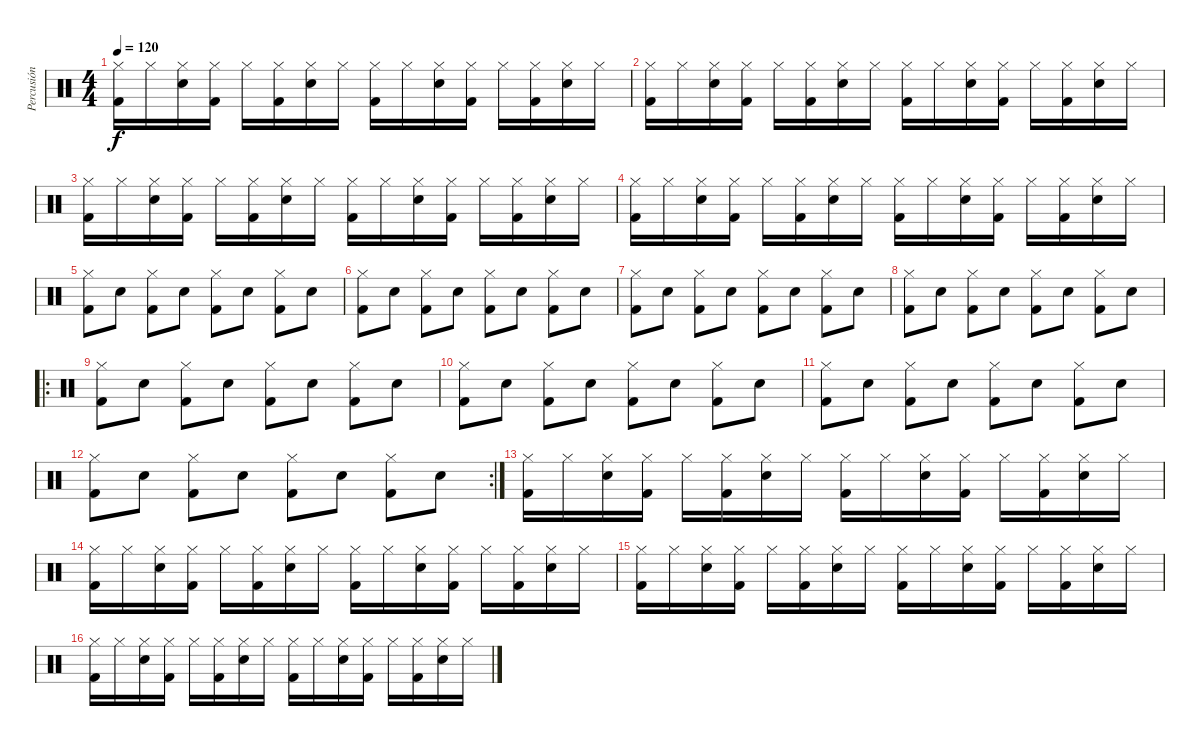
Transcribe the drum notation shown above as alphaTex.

\track ("Percusión" "Percusión") {instrument percussion}
\staff {score}
\articulation defaults
\ts (4 4)
\tempo 120
\clef neutral
\ks c
("Kick (hit) 2" "Hi-Hat (closed)").16{dy f} "Hi-Hat (closed)".16 ("Snare (hit) 2" "Hi-Hat (closed)").16 ("Kick (hit) 2" "Hi-Hat (closed)").16 "Hi-Hat (closed)".16 ("Kick (hit) 2" "Hi-Hat (closed)").16 ("Snare (hit) 2" "Hi-Hat (closed)").16 "Hi-Hat (closed)".16 ("Kick (hit) 2" "Hi-Hat (closed)").16 "Hi-Hat (closed)".16 ("Snare (hit) 2" "Hi-Hat (closed)").16 ("Kick (hit) 2" "Hi-Hat (closed)").16 "Hi-Hat (closed)".16 ("Kick (hit) 2" "Hi-Hat (closed)").16 ("Snare (hit) 2" "Hi-Hat (closed)").16 "Hi-Hat (closed)".16 |
("Kick (hit) 2" "Hi-Hat (closed)").16 "Hi-Hat (closed)".16 ("Snare (hit) 2" "Hi-Hat (closed)").16 ("Kick (hit) 2" "Hi-Hat (closed)").16 "Hi-Hat (closed)".16 ("Kick (hit) 2" "Hi-Hat (closed)").16 ("Snare (hit) 2" "Hi-Hat (closed)").16 "Hi-Hat (closed)".16 ("Kick (hit) 2" "Hi-Hat (closed)").16 "Hi-Hat (closed)".16 ("Snare (hit) 2" "Hi-Hat (closed)").16 ("Kick (hit) 2" "Hi-Hat (closed)").16 "Hi-Hat (closed)".16 ("Kick (hit) 2" "Hi-Hat (closed)").16 ("Snare (hit) 2" "Hi-Hat (closed)").16 "Hi-Hat (closed)".16 |
("Kick (hit) 2" "Hi-Hat (closed)").16 "Hi-Hat (closed)".16 ("Snare (hit) 2" "Hi-Hat (closed)").16 ("Kick (hit) 2" "Hi-Hat (closed)").16 "Hi-Hat (closed)".16 ("Kick (hit) 2" "Hi-Hat (closed)").16 ("Snare (hit) 2" "Hi-Hat (closed)").16 "Hi-Hat (closed)".16 ("Kick (hit) 2" "Hi-Hat (closed)").16 "Hi-Hat (closed)".16 ("Snare (hit) 2" "Hi-Hat (closed)").16 ("Kick (hit) 2" "Hi-Hat (closed)").16 "Hi-Hat (closed)".16 ("Kick (hit) 2" "Hi-Hat (closed)").16 ("Snare (hit) 2" "Hi-Hat (closed)").16 "Hi-Hat (closed)".16 |
("Kick (hit) 2" "Hi-Hat (closed)").16 "Hi-Hat (closed)".16 ("Snare (hit) 2" "Hi-Hat (closed)").16 ("Kick (hit) 2" "Hi-Hat (closed)").16 "Hi-Hat (closed)".16 ("Kick (hit) 2" "Hi-Hat (closed)").16 ("Snare (hit) 2" "Hi-Hat (closed)").16 "Hi-Hat (closed)".16 ("Kick (hit) 2" "Hi-Hat (closed)").16 "Hi-Hat (closed)".16 ("Snare (hit) 2" "Hi-Hat (closed)").16 ("Kick (hit) 2" "Hi-Hat (closed)").16 "Hi-Hat (closed)".16 ("Kick (hit) 2" "Hi-Hat (closed)").16 ("Snare (hit) 2" "Hi-Hat (closed)").16 "Hi-Hat (closed)".16 |
("Hi-Hat (closed)" "Kick (hit) 2").8 "Snare (hit) 2".8 ("Hi-Hat (closed)" "Kick (hit) 2").8 "Snare (hit) 2".8 ("Hi-Hat (closed)" "Kick (hit) 2").8 "Snare (hit) 2".8 ("Hi-Hat (closed)" "Kick (hit) 2").8 "Snare (hit) 2".8 |
("Hi-Hat (closed)" "Kick (hit) 2").8 "Snare (hit) 2".8 ("Hi-Hat (closed)" "Kick (hit) 2").8 "Snare (hit) 2".8 ("Hi-Hat (closed)" "Kick (hit) 2").8 "Snare (hit) 2".8 ("Hi-Hat (closed)" "Kick (hit) 2").8 "Snare (hit) 2".8 |
("Hi-Hat (closed)" "Kick (hit) 2").8 "Snare (hit) 2".8 ("Hi-Hat (closed)" "Kick (hit) 2").8 "Snare (hit) 2".8 ("Hi-Hat (closed)" "Kick (hit) 2").8 "Snare (hit) 2".8 ("Hi-Hat (closed)" "Kick (hit) 2").8 "Snare (hit) 2".8 |
("Hi-Hat (closed)" "Kick (hit) 2").8 "Snare (hit) 2".8 ("Hi-Hat (closed)" "Kick (hit) 2").8 "Snare (hit) 2".8 ("Hi-Hat (closed)" "Kick (hit) 2").8 "Snare (hit) 2".8 ("Hi-Hat (closed)" "Kick (hit) 2").8 "Snare (hit) 2".8 |
\ro
("Hi-Hat (closed)" "Kick (hit) 2").8 "Snare (hit) 2".8 ("Hi-Hat (closed)" "Kick (hit) 2").8 "Snare (hit) 2".8 ("Hi-Hat (closed)" "Kick (hit) 2").8 "Snare (hit) 2".8 ("Hi-Hat (closed)" "Kick (hit) 2").8 "Snare (hit) 2".8 |
("Hi-Hat (closed)" "Kick (hit) 2").8 "Snare (hit) 2".8 ("Hi-Hat (closed)" "Kick (hit) 2").8 "Snare (hit) 2".8 ("Hi-Hat (closed)" "Kick (hit) 2").8 "Snare (hit) 2".8 ("Hi-Hat (closed)" "Kick (hit) 2").8 "Snare (hit) 2".8 |
("Hi-Hat (closed)" "Kick (hit) 2").8 "Snare (hit) 2".8 ("Hi-Hat (closed)" "Kick (hit) 2").8 "Snare (hit) 2".8 ("Hi-Hat (closed)" "Kick (hit) 2").8 "Snare (hit) 2".8 ("Hi-Hat (closed)" "Kick (hit) 2").8 "Snare (hit) 2".8 |
\rc 2
("Hi-Hat (closed)" "Kick (hit) 2").8 "Snare (hit) 2".8 ("Hi-Hat (closed)" "Kick (hit) 2").8 "Snare (hit) 2".8 ("Hi-Hat (closed)" "Kick (hit) 2").8 "Snare (hit) 2".8 ("Hi-Hat (closed)" "Kick (hit) 2").8 "Snare (hit) 2".8 |
("Kick (hit) 2" "Hi-Hat (closed)").16 "Hi-Hat (closed)".16 ("Snare (hit) 2" "Hi-Hat (closed)").16 ("Kick (hit) 2" "Hi-Hat (closed)").16 "Hi-Hat (closed)".16 ("Kick (hit) 2" "Hi-Hat (closed)").16 ("Snare (hit) 2" "Hi-Hat (closed)").16 "Hi-Hat (closed)".16 ("Kick (hit) 2" "Hi-Hat (closed)").16 "Hi-Hat (closed)".16 ("Snare (hit) 2" "Hi-Hat (closed)").16 ("Kick (hit) 2" "Hi-Hat (closed)").16 "Hi-Hat (closed)".16 ("Kick (hit) 2" "Hi-Hat (closed)").16 ("Snare (hit) 2" "Hi-Hat (closed)").16 "Hi-Hat (closed)".16 |
("Kick (hit) 2" "Hi-Hat (closed)").16 "Hi-Hat (closed)".16 ("Snare (hit) 2" "Hi-Hat (closed)").16 ("Kick (hit) 2" "Hi-Hat (closed)").16 "Hi-Hat (closed)".16 ("Kick (hit) 2" "Hi-Hat (closed)").16 ("Snare (hit) 2" "Hi-Hat (closed)").16 "Hi-Hat (closed)".16 ("Kick (hit) 2" "Hi-Hat (closed)").16 "Hi-Hat (closed)".16 ("Snare (hit) 2" "Hi-Hat (closed)").16 ("Kick (hit) 2" "Hi-Hat (closed)").16 "Hi-Hat (closed)".16 ("Kick (hit) 2" "Hi-Hat (closed)").16 ("Snare (hit) 2" "Hi-Hat (closed)").16 "Hi-Hat (closed)".16 |
("Kick (hit) 2" "Hi-Hat (closed)").16 "Hi-Hat (closed)".16 ("Snare (hit) 2" "Hi-Hat (closed)").16 ("Kick (hit) 2" "Hi-Hat (closed)").16 "Hi-Hat (closed)".16 ("Kick (hit) 2" "Hi-Hat (closed)").16 ("Snare (hit) 2" "Hi-Hat (closed)").16 "Hi-Hat (closed)".16 ("Kick (hit) 2" "Hi-Hat (closed)").16 "Hi-Hat (closed)".16 ("Snare (hit) 2" "Hi-Hat (closed)").16 ("Kick (hit) 2" "Hi-Hat (closed)").16 "Hi-Hat (closed)".16 ("Kick (hit) 2" "Hi-Hat (closed)").16 ("Snare (hit) 2" "Hi-Hat (closed)").16 "Hi-Hat (closed)".16 |
("Kick (hit) 2" "Hi-Hat (closed)").16 "Hi-Hat (closed)".16 ("Snare (hit) 2" "Hi-Hat (closed)").16 ("Kick (hit) 2" "Hi-Hat (closed)").16 "Hi-Hat (closed)".16 ("Kick (hit) 2" "Hi-Hat (closed)").16 ("Snare (hit) 2" "Hi-Hat (closed)").16 "Hi-Hat (closed)".16 ("Kick (hit) 2" "Hi-Hat (closed)").16 "Hi-Hat (closed)".16 ("Snare (hit) 2" "Hi-Hat (closed)").16 ("Kick (hit) 2" "Hi-Hat (closed)").16 "Hi-Hat (closed)".16 ("Kick (hit) 2" "Hi-Hat (closed)").16 ("Snare (hit) 2" "Hi-Hat (closed)").16 "Hi-Hat (closed)".16
